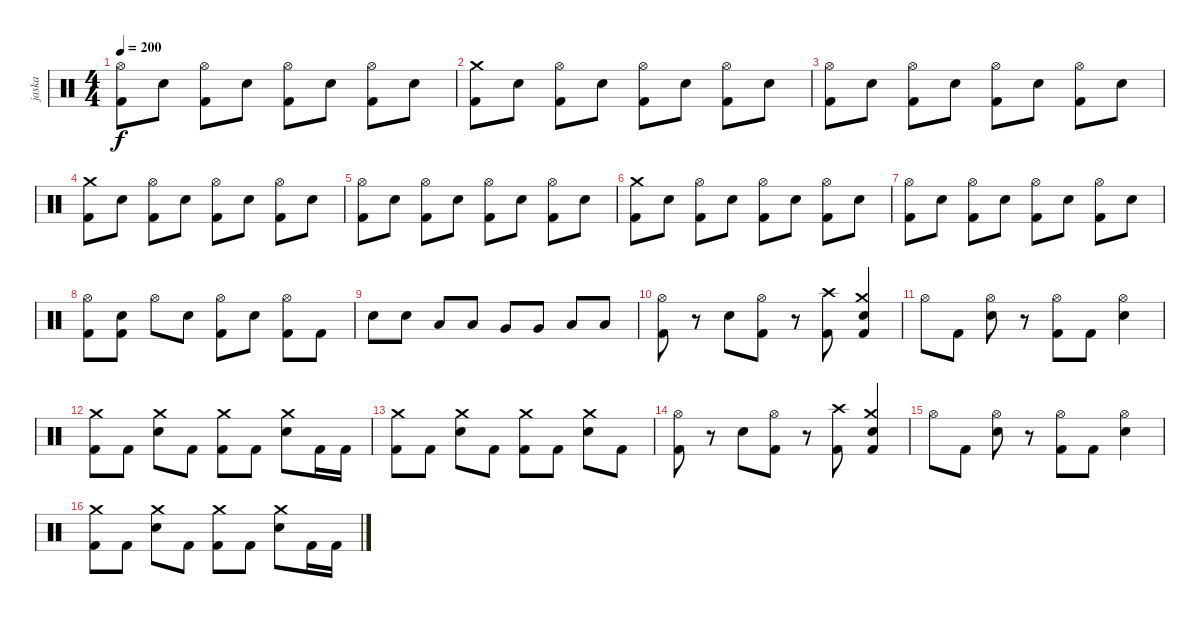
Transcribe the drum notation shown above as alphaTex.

\track ("jaska" "jaska") {instrument percussion}
\staff {score}
\articulation defaults
\ts (4 4)
\tempo 200
\clef neutral
\ks c
("Hi-Hat (open)" "Kick (hit) 2").8{dy f} "Electric Snare (hit)".8 ("Hi-Hat (open)" "Kick (hit) 2").8 "Electric Snare (hit)".8 ("Hi-Hat (open)" "Kick (hit) 2").8 "Electric Snare (hit)".8 ("Hi-Hat (open)" "Kick (hit) 2").8 "Electric Snare (hit)".8 |
("Crash medium (hit)" "Kick (hit) 2").8 "Electric Snare (hit)".8 ("Hi-Hat (open)" "Kick (hit) 2").8 "Electric Snare (hit)".8 ("Hi-Hat (open)" "Kick (hit) 2").8 "Electric Snare (hit)".8 ("Hi-Hat (open)" "Kick (hit) 2").8 "Electric Snare (hit)".8 |
("Hi-Hat (open)" "Kick (hit) 2").8 "Electric Snare (hit)".8 ("Hi-Hat (open)" "Kick (hit) 2").8 "Electric Snare (hit)".8 ("Hi-Hat (open)" "Kick (hit) 2").8 "Electric Snare (hit)".8 ("Hi-Hat (open)" "Kick (hit) 2").8 "Electric Snare (hit)".8 |
("Crash medium (hit)" "Kick (hit) 2").8 "Electric Snare (hit)".8 ("Hi-Hat (open)" "Kick (hit) 2").8 "Electric Snare (hit)".8 ("Hi-Hat (open)" "Kick (hit) 2").8 "Electric Snare (hit)".8 ("Hi-Hat (open)" "Kick (hit) 2").8 "Electric Snare (hit)".8 |
("Hi-Hat (open)" "Kick (hit) 2").8 "Electric Snare (hit)".8 ("Hi-Hat (open)" "Kick (hit) 2").8 "Electric Snare (hit)".8 ("Hi-Hat (open)" "Kick (hit) 2").8 "Electric Snare (hit)".8 ("Hi-Hat (open)" "Kick (hit) 2").8 "Electric Snare (hit)".8 |
("Crash medium (hit)" "Kick (hit) 2").8 "Electric Snare (hit)".8 ("Hi-Hat (open)" "Kick (hit) 2").8 "Electric Snare (hit)".8 ("Hi-Hat (open)" "Kick (hit) 2").8 "Electric Snare (hit)".8 ("Hi-Hat (open)" "Kick (hit) 2").8 "Electric Snare (hit)".8 |
("Hi-Hat (open)" "Kick (hit) 2").8 "Electric Snare (hit)".8 ("Hi-Hat (open)" "Kick (hit) 2").8 "Electric Snare (hit)".8 ("Hi-Hat (open)" "Kick (hit) 2").8 "Electric Snare (hit)".8 ("Hi-Hat (open)" "Kick (hit) 2").8 "Electric Snare (hit)".8 |
("Hi-Hat (open)" "Kick (hit) 2").8 ("Electric Snare (hit)" "Kick (hit) 2").8 "Hi-Hat (open)".8 "Electric Snare (hit)".8 ("Hi-Hat (open)" "Kick (hit) 2").8 "Electric Snare (hit)".8 ("Hi-Hat (open)" "Kick (hit) 2").8 "Kick (hit) 2".8 |
"Electric Snare (hit)".8 "Electric Snare (hit)".8 "Low Tom (hit)".8 "Low Tom (hit)".8 "Very Low Tom (hit)".8 "Very Low Tom (hit)".8 "Low Floor Tom (hit)".8 "Low Floor Tom (hit)".8 |
("Hi-Hat (open)" "Kick (hit) 2").8 r.8 "Snare (hit) 2".8 ("Hi-Hat (open)" "Kick (hit) 2").8 r.8 ("Crash high (hit)" "Kick (hit) 2").8 ("Crash medium (hit)" "Snare (hit) 2" "Kick (hit) 2").4 |
"Hi-Hat (open)".8 "Kick (hit) 2".8 ("Hi-Hat (open)" "Snare (hit) 2").8 r.8 ("Hi-Hat (open)" "Kick (hit) 2").8 "Kick (hit) 2".8 ("Hi-Hat (open)" "Snare (hit) 2").4 |
("Crash medium (hit)" "Kick (hit) 2").8 "Kick (hit) 2".8 ("Crash medium (hit)" "Snare (hit) 2").8 "Kick (hit) 2".8 ("Crash medium (hit)" "Kick (hit) 2").8 "Kick (hit) 2".8 ("Crash medium (hit)" "Snare (hit) 2").8 "Kick (hit) 2".16 "Kick (hit) 2".16 |
("Crash medium (hit)" "Kick (hit) 2").8 "Kick (hit) 2".8 ("Crash medium (hit)" "Snare (hit) 2").8 "Kick (hit) 2".8 ("Crash medium (hit)" "Kick (hit) 2").8 "Kick (hit) 2".8 ("Crash medium (hit)" "Snare (hit) 2").8 "Kick (hit) 2".8 |
("Hi-Hat (open)" "Kick (hit) 2").8 r.8 "Snare (hit) 2".8 ("Hi-Hat (open)" "Kick (hit) 2").8 r.8 ("Crash high (hit)" "Kick (hit) 2").8 ("Crash medium (hit)" "Snare (hit) 2" "Kick (hit) 2").4 |
"Hi-Hat (open)".8 "Kick (hit) 2".8 ("Hi-Hat (open)" "Snare (hit) 2").8 r.8 ("Hi-Hat (open)" "Kick (hit) 2").8 "Kick (hit) 2".8 ("Hi-Hat (open)" "Snare (hit) 2").4 |
("Crash medium (hit)" "Kick (hit) 2").8 "Kick (hit) 2".8 ("Crash medium (hit)" "Snare (hit) 2").8 "Kick (hit) 2".8 ("Crash medium (hit)" "Kick (hit) 2").8 "Kick (hit) 2".8 ("Crash medium (hit)" "Snare (hit) 2").8 "Kick (hit) 2".16 "Kick (hit) 2".16
